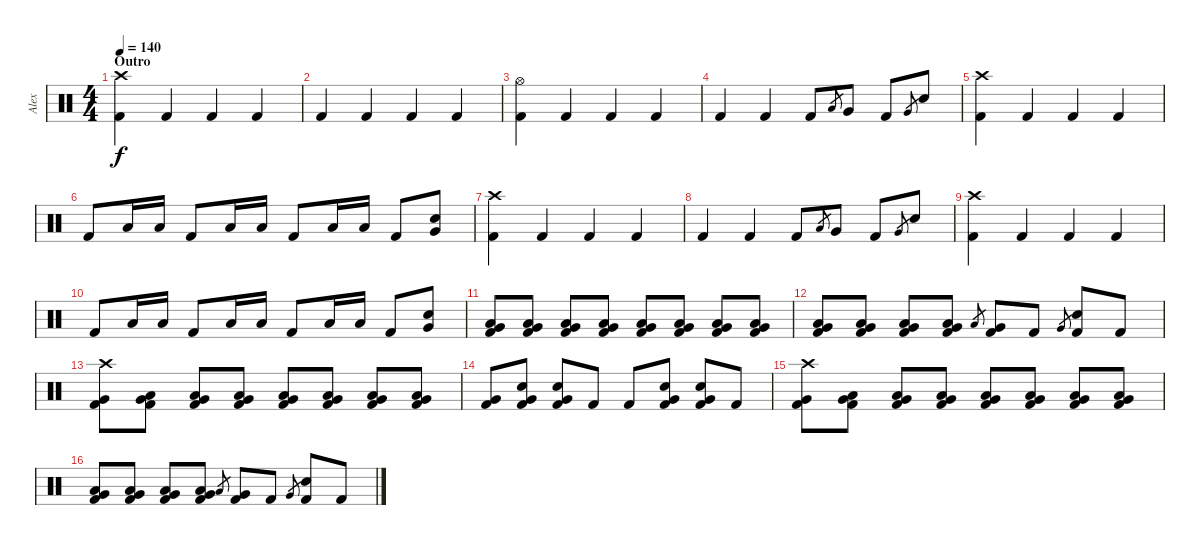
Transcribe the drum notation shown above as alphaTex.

\track ("Alex" "Alex") {instrument percussion}
\staff {score}
\articulation defaults
\ts (4 4)
\section ("" "Outro")
\tempo 140
\clef neutral
\ks c
("Crash high (hit)" "Kick (hit) 2").4{dy f} "Kick (hit) 2".4 "Kick (hit) 2".4 "Kick (hit) 2".4 |
"Kick (hit) 2".4 "Kick (hit) 2".4 "Kick (hit) 2".4 "Kick (hit) 2".4 |
("Hi-Hat (open)" "Kick (hit) 2").4 "Kick (hit) 2".4 "Kick (hit) 2".4 "Kick (hit) 2".4 |
"Kick (hit) 2".4 "Kick (hit) 2".4 "Kick (hit) 2".8 "Low Tom (hit)".8{gr} "Very Low Tom (hit)".8 "Kick (hit) 2".8 "Very Low Tom (hit)".8{gr} "Electric Snare (hit)".8 |
("Crash high (hit)" "Kick (hit) 2").4 "Kick (hit) 2".4 "Kick (hit) 2".4 "Kick (hit) 2".4 |
"Kick (hit) 2".8 "Low Tom (hit)".16 "Low Tom (hit)".16 "Kick (hit) 2".8 "Low Floor Tom (hit)".16 "Low Floor Tom (hit)".16 "Kick (hit) 2".8 "Low Tom (hit)".16 "Low Tom (hit)".16 "Kick (hit) 2".8 ("Very Low Tom (hit)" "Electric Snare (hit)").8 |
("Crash high (hit)" "Kick (hit) 2").4 "Kick (hit) 2".4 "Kick (hit) 2".4 "Kick (hit) 2".4 |
"Kick (hit) 2".4 "Kick (hit) 2".4 "Kick (hit) 2".8 "Low Tom (hit)".8{gr} "Very Low Tom (hit)".8 "Kick (hit) 2".8 "Very Low Tom (hit)".8{gr} "Electric Snare (hit)".8 |
("Crash high (hit)" "Kick (hit) 2").4 "Kick (hit) 2".4 "Kick (hit) 2".4 "Kick (hit) 2".4 |
"Kick (hit) 2".8 "Low Tom (hit)".16 "Low Tom (hit)".16 "Kick (hit) 2".8 "Low Floor Tom (hit)".16 "Low Floor Tom (hit)".16 "Kick (hit) 2".8 "Low Tom (hit)".16 "Low Tom (hit)".16 "Kick (hit) 2".8 ("Very Low Tom (hit)" "Electric Snare (hit)").8 |
("Low Tom (hit)" "Very Low Tom (hit)" "Kick (hit) 2").8 ("Low Tom (hit)" "Very Low Tom (hit)" "Kick (hit) 2").8 ("Low Tom (hit)" "Very Low Tom (hit)" "Kick (hit) 2").8 ("Low Tom (hit)" "Very Low Tom (hit)" "Kick (hit) 2").8 ("Low Tom (hit)" "Very Low Tom (hit)" "Kick (hit) 2").8 ("Low Tom (hit)" "Very Low Tom (hit)" "Kick (hit) 2").8 ("Low Tom (hit)" "Very Low Tom (hit)" "Kick (hit) 2").8 ("Low Tom (hit)" "Very Low Tom (hit)" "Kick (hit) 2").8 |
("Low Tom (hit)" "Very Low Tom (hit)" "Kick (hit) 2").8 ("Low Tom (hit)" "Very Low Tom (hit)" "Kick (hit) 2").8 ("Low Tom (hit)" "Very Low Tom (hit)" "Kick (hit) 2").8 ("Low Tom (hit)" "Very Low Tom (hit)" "Kick (hit) 2").8 "Low Tom (hit)".8{gr} ("Very Low Tom (hit)" "Kick (hit) 2").8 "Kick (hit) 2".8 "Very Low Tom (hit)".8{gr} ("Electric Snare (hit)" "Kick (hit) 2").8 "Kick (hit) 2".8 |
("Crash high (hit)" "Very Low Tom (hit)" "Kick (hit) 2").8 ("Low Tom (hit)" "Very Low Tom (hit)" "Kick (hit) 2").8 ("Low Tom (hit)" "Very Low Tom (hit)" "Kick (hit) 2").8 ("Low Tom (hit)" "Very Low Tom (hit)" "Kick (hit) 2").8 ("Low Tom (hit)" "Very Low Tom (hit)" "Kick (hit) 2").8 ("Low Tom (hit)" "Very Low Tom (hit)" "Kick (hit) 2").8 ("Low Tom (hit)" "Very Low Tom (hit)" "Kick (hit) 2").8 ("Low Tom (hit)" "Very Low Tom (hit)" "Kick (hit) 2").8 |
("Very Low Tom (hit)" "Kick (hit) 2").8 ("Very Low Tom (hit)" "Electric Snare (hit)" "Kick (hit) 2").8 ("Very Low Tom (hit)" "Electric Snare (hit)" "Kick (hit) 2").8 "Kick (hit) 2".8 "Kick (hit) 2".8 ("Very Low Tom (hit)" "Electric Snare (hit)" "Kick (hit) 2").8 ("Very Low Tom (hit)" "Electric Snare (hit)" "Kick (hit) 2").8 "Kick (hit) 2".8 |
("Crash high (hit)" "Very Low Tom (hit)" "Kick (hit) 2").8 ("Low Tom (hit)" "Very Low Tom (hit)" "Kick (hit) 2").8 ("Low Tom (hit)" "Very Low Tom (hit)" "Kick (hit) 2").8 ("Low Tom (hit)" "Very Low Tom (hit)" "Kick (hit) 2").8 ("Low Tom (hit)" "Very Low Tom (hit)" "Kick (hit) 2").8 ("Low Tom (hit)" "Very Low Tom (hit)" "Kick (hit) 2").8 ("Low Tom (hit)" "Very Low Tom (hit)" "Kick (hit) 2").8 ("Low Tom (hit)" "Very Low Tom (hit)" "Kick (hit) 2").8 |
("Low Tom (hit)" "Very Low Tom (hit)" "Kick (hit) 2").8 ("Low Tom (hit)" "Very Low Tom (hit)" "Kick (hit) 2").8 ("Low Tom (hit)" "Very Low Tom (hit)" "Kick (hit) 2").8 ("Low Tom (hit)" "Very Low Tom (hit)" "Kick (hit) 2").8 "Low Tom (hit)".8{gr} ("Very Low Tom (hit)" "Kick (hit) 2").8 "Kick (hit) 2".8 "Very Low Tom (hit)".8{gr} ("Electric Snare (hit)" "Kick (hit) 2").8 "Kick (hit) 2".8
